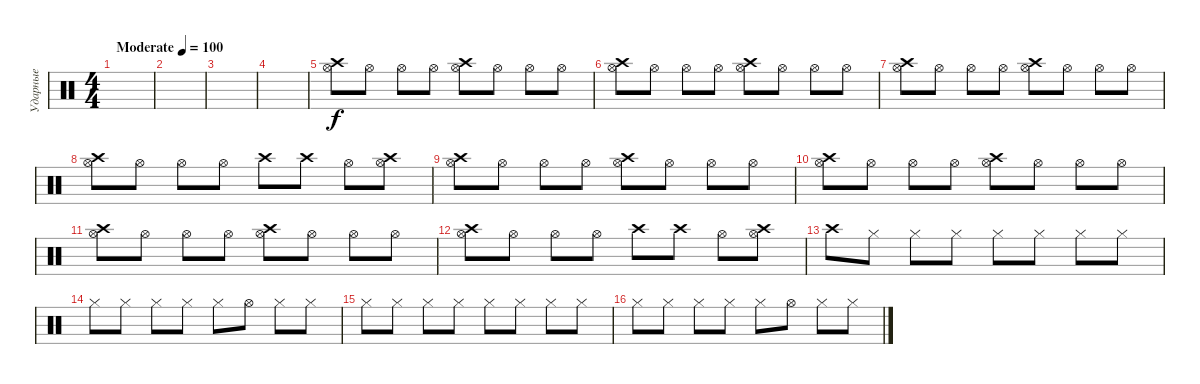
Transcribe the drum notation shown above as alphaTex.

\track ("Ударные" "Ударные") {instrument percussion}
\staff {score}
\articulation defaults
\ts (4 4)
\tempo (100 "Moderate")
\clef neutral
\ks c
|
|
|
|
("Hi-Hat (open)" "Crash high (hit)").8 "Hi-Hat (open)".8 "Hi-Hat (open)".8 "Hi-Hat (open)".8 ("Hi-Hat (open)" "Crash high (hit)").8 "Hi-Hat (open)".8 "Hi-Hat (open)".8 "Hi-Hat (open)".8 |
("Hi-Hat (open)" "Crash high (hit)").8 "Hi-Hat (open)".8 "Hi-Hat (open)".8 "Hi-Hat (open)".8 ("Hi-Hat (open)" "Crash high (hit)").8 "Hi-Hat (open)".8 "Hi-Hat (open)".8 "Hi-Hat (open)".8 |
("Hi-Hat (open)" "Crash high (hit)").8 "Hi-Hat (open)".8 "Hi-Hat (open)".8 "Hi-Hat (open)".8 ("Hi-Hat (open)" "Crash high (hit)").8 "Hi-Hat (open)".8 "Hi-Hat (open)".8 "Hi-Hat (open)".8 |
("Hi-Hat (open)" "Crash high (hit)").8 "Hi-Hat (open)".8 "Hi-Hat (open)".8 "Hi-Hat (open)".8 "Crash high (hit)".8 "Crash high (hit)".8 "Hi-Hat (open)".8 ("Hi-Hat (open)" "Crash high (hit)").8 |
("Hi-Hat (open)" "Crash high (hit)").8 "Hi-Hat (open)".8 "Hi-Hat (open)".8 "Hi-Hat (open)".8 ("Hi-Hat (open)" "Crash high (hit)").8 "Hi-Hat (open)".8 "Hi-Hat (open)".8 "Hi-Hat (open)".8 |
("Hi-Hat (open)" "Crash high (hit)").8 "Hi-Hat (open)".8 "Hi-Hat (open)".8 "Hi-Hat (open)".8 ("Hi-Hat (open)" "Crash high (hit)").8 "Hi-Hat (open)".8 "Hi-Hat (open)".8 "Hi-Hat (open)".8 |
("Hi-Hat (open)" "Crash high (hit)").8 "Hi-Hat (open)".8 "Hi-Hat (open)".8 "Hi-Hat (open)".8 ("Hi-Hat (open)" "Crash high (hit)").8 "Hi-Hat (open)".8 "Hi-Hat (open)".8 "Hi-Hat (open)".8 |
("Hi-Hat (open)" "Crash high (hit)").8 "Hi-Hat (open)".8 "Hi-Hat (open)".8 "Hi-Hat (open)".8 "Crash high (hit)".8 "Crash high (hit)".8 "Hi-Hat (open)".8 ("Hi-Hat (open)" "Crash high (hit)").8 |
"Crash high (hit)".8 "Hi-Hat (closed)".8 "Hi-Hat (closed)".8 "Hi-Hat (closed)".8 "Hi-Hat (closed)".8 "Hi-Hat (closed)".8 "Hi-Hat (closed)".8 "Hi-Hat (closed)".8 |
"Hi-Hat (closed)".8 "Hi-Hat (closed)".8 "Hi-Hat (closed)".8 "Hi-Hat (closed)".8 "Hi-Hat (closed)".8 "Hi-Hat (open)".8 "Hi-Hat (closed)".8 "Hi-Hat (closed)".8 |
"Hi-Hat (closed)".8 "Hi-Hat (closed)".8 "Hi-Hat (closed)".8 "Hi-Hat (closed)".8 "Hi-Hat (closed)".8 "Hi-Hat (closed)".8 "Hi-Hat (closed)".8 "Hi-Hat (closed)".8 |
"Hi-Hat (closed)".8 "Hi-Hat (closed)".8 "Hi-Hat (closed)".8 "Hi-Hat (closed)".8 "Hi-Hat (closed)".8 "Hi-Hat (open)".8 "Hi-Hat (closed)".8 "Hi-Hat (closed)".8
